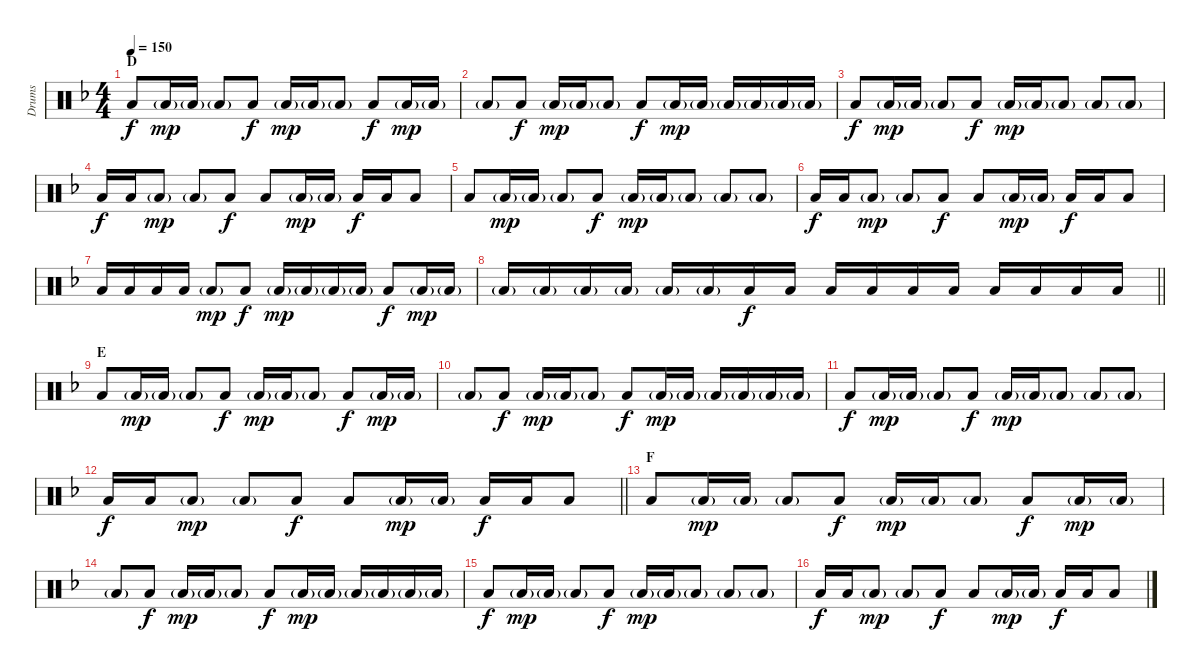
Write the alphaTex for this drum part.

\track ("Drums" "Drums") {instrument percussion}
\staff {score}
\articulation defaults
\ts (4 4)
\section ("" "D")
\tempo 150
\clef neutral
\ks f "Low Tom (hit)".8{dy f} "Low Tom (hit)"{g}.16{dy mp} "Low Tom (hit)"{g}.16 "Low Tom (hit)"{g}.8 "Low Tom (hit)".8{dy f} "Low Tom (hit)"{g}.16{dy mp} "Low Tom (hit)"{g}.16 "Low Tom (hit)"{g}.8 "Low Tom (hit)".8{dy f} "Low Tom (hit)"{g}.16{dy mp} "Low Tom (hit)"{g}.16
|
"Low Tom (hit)"{g}.8 "Low Tom (hit)".8{dy f} "Low Tom (hit)"{g}.16{dy mp} "Low Tom (hit)"{g}.16 "Low Tom (hit)"{g}.8 "Low Tom (hit)".8{dy f} "Low Tom (hit)"{g}.16{dy mp} "Low Tom (hit)"{g}.16 "Low Tom (hit)"{g}.16 "Low Tom (hit)"{g}.16 "Low Tom (hit)"{g}.16 "Low Tom (hit)"{g}.16 |
"Low Tom (hit)".8{dy f} "Low Tom (hit)"{g}.16{dy mp} "Low Tom (hit)"{g}.16 "Low Tom (hit)"{g}.8 "Low Tom (hit)".8{dy f} "Low Tom (hit)"{g}.16{dy mp} "Low Tom (hit)"{g}.16 "Low Tom (hit)"{g}.8 "Low Tom (hit)"{g}.8 "Low Tom (hit)"{g}.8 |
"Low Tom (hit)".16{dy f} "Low Tom (hit)".16 "Low Tom (hit)"{g}.8{dy mp} "Low Tom (hit)"{g}.8 "Low Tom (hit)".8{dy f} "Low Tom (hit)".8 "Low Tom (hit)"{g}.16{dy mp} "Low Tom (hit)"{g}.16 "Low Tom (hit)".16{dy f} "Low Tom (hit)".16 "Low Tom (hit)".8 |
"Low Tom (hit)".8 "Low Tom (hit)"{g}.16{dy mp} "Low Tom (hit)"{g}.16 "Low Tom (hit)"{g}.8 "Low Tom (hit)".8{dy f} "Low Tom (hit)"{g}.16{dy mp} "Low Tom (hit)"{g}.16 "Low Tom (hit)"{g}.8 "Low Tom (hit)"{g}.8 "Low Tom (hit)"{g}.8 |
"Low Tom (hit)".16{dy f} "Low Tom (hit)".16 "Low Tom (hit)"{g}.8{dy mp} "Low Tom (hit)"{g}.8 "Low Tom (hit)".8{dy f} "Low Tom (hit)".8 "Low Tom (hit)"{g}.16{dy mp} "Low Tom (hit)"{g}.16 "Low Tom (hit)".16{dy f} "Low Tom (hit)".16 "Low Tom (hit)".8 |
"Low Tom (hit)".16 "Low Tom (hit)".16 "Low Tom (hit)".16 "Low Tom (hit)".16 "Low Tom (hit)"{g}.8{dy mp} "Low Tom (hit)".8{dy f} "Low Tom (hit)"{g}.16{dy mp} "Low Tom (hit)"{g}.16 "Low Tom (hit)"{g}.16 "Low Tom (hit)"{g}.16 "Low Tom (hit)".8{dy f} "Low Tom (hit)"{g}.16{dy mp} "Low Tom (hit)"{g}.16 |
\barLineRight lightlight "Low Tom (hit)"{g}.16 "Low Tom (hit)"{g}.16 "Low Tom (hit)"{g}.16 "Low Tom (hit)"{g}.16 "Low Tom (hit)"{g}.16 "Low Tom (hit)"{g}.16 "Low Tom (hit)".16{dy f} "Low Tom (hit)".16 "Low Tom (hit)".16 "Low Tom (hit)".16 "Low Tom (hit)".16 "Low Tom (hit)".16 "Low Tom (hit)".16 "Low Tom (hit)".16 "Low Tom (hit)".16 "Low Tom (hit)".16
|
\section ("" "E")
"Low Tom (hit)".8 "Low Tom (hit)"{g}.16{dy mp} "Low Tom (hit)"{g}.16 "Low Tom (hit)"{g}.8 "Low Tom (hit)".8{dy f} "Low Tom (hit)"{g}.16{dy mp} "Low Tom (hit)"{g}.16 "Low Tom (hit)"{g}.8 "Low Tom (hit)".8{dy f} "Low Tom (hit)"{g}.16{dy mp} "Low Tom (hit)"{g}.16 |
"Low Tom (hit)"{g}.8 "Low Tom (hit)".8{dy f} "Low Tom (hit)"{g}.16{dy mp} "Low Tom (hit)"{g}.16 "Low Tom (hit)"{g}.8 "Low Tom (hit)".8{dy f} "Low Tom (hit)"{g}.16{dy mp} "Low Tom (hit)"{g}.16 "Low Tom (hit)"{g}.16 "Low Tom (hit)"{g}.16 "Low Tom (hit)"{g}.16 "Low Tom (hit)"{g}.16 |
"Low Tom (hit)".8{dy f} "Low Tom (hit)"{g}.16{dy mp} "Low Tom (hit)"{g}.16 "Low Tom (hit)"{g}.8 "Low Tom (hit)".8{dy f} "Low Tom (hit)"{g}.16{dy mp} "Low Tom (hit)"{g}.16 "Low Tom (hit)"{g}.8 "Low Tom (hit)"{g}.8 "Low Tom (hit)"{g}.8 |
\barLineRight lightlight "Low Tom (hit)".16{dy f} "Low Tom (hit)".16 "Low Tom (hit)"{g}.8{dy mp} "Low Tom (hit)"{g}.8 "Low Tom (hit)".8{dy f} "Low Tom (hit)".8 "Low Tom (hit)"{g}.16{dy mp} "Low Tom (hit)"{g}.16 "Low Tom (hit)".16{dy f} "Low Tom (hit)".16 "Low Tom (hit)".8
|
\section ("" "F")
"Low Tom (hit)".8 "Low Tom (hit)"{g}.16{dy mp} "Low Tom (hit)"{g}.16 "Low Tom (hit)"{g}.8 "Low Tom (hit)".8{dy f} "Low Tom (hit)"{g}.16{dy mp} "Low Tom (hit)"{g}.16 "Low Tom (hit)"{g}.8 "Low Tom (hit)".8{dy f} "Low Tom (hit)"{g}.16{dy mp} "Low Tom (hit)"{g}.16 |
"Low Tom (hit)"{g}.8 "Low Tom (hit)".8{dy f} "Low Tom (hit)"{g}.16{dy mp} "Low Tom (hit)"{g}.16 "Low Tom (hit)"{g}.8 "Low Tom (hit)".8{dy f} "Low Tom (hit)"{g}.16{dy mp} "Low Tom (hit)"{g}.16 "Low Tom (hit)"{g}.16 "Low Tom (hit)"{g}.16 "Low Tom (hit)"{g}.16 "Low Tom (hit)"{g}.16 |
"Low Tom (hit)".8{dy f} "Low Tom (hit)"{g}.16{dy mp} "Low Tom (hit)"{g}.16 "Low Tom (hit)"{g}.8 "Low Tom (hit)".8{dy f} "Low Tom (hit)"{g}.16{dy mp} "Low Tom (hit)"{g}.16 "Low Tom (hit)"{g}.8 "Low Tom (hit)"{g}.8 "Low Tom (hit)"{g}.8 |
"Low Tom (hit)".16{dy f} "Low Tom (hit)".16 "Low Tom (hit)"{g}.8{dy mp} "Low Tom (hit)"{g}.8 "Low Tom (hit)".8{dy f} "Low Tom (hit)".8 "Low Tom (hit)"{g}.16{dy mp} "Low Tom (hit)"{g}.16 "Low Tom (hit)".16{dy f} "Low Tom (hit)".16 "Low Tom (hit)".8
